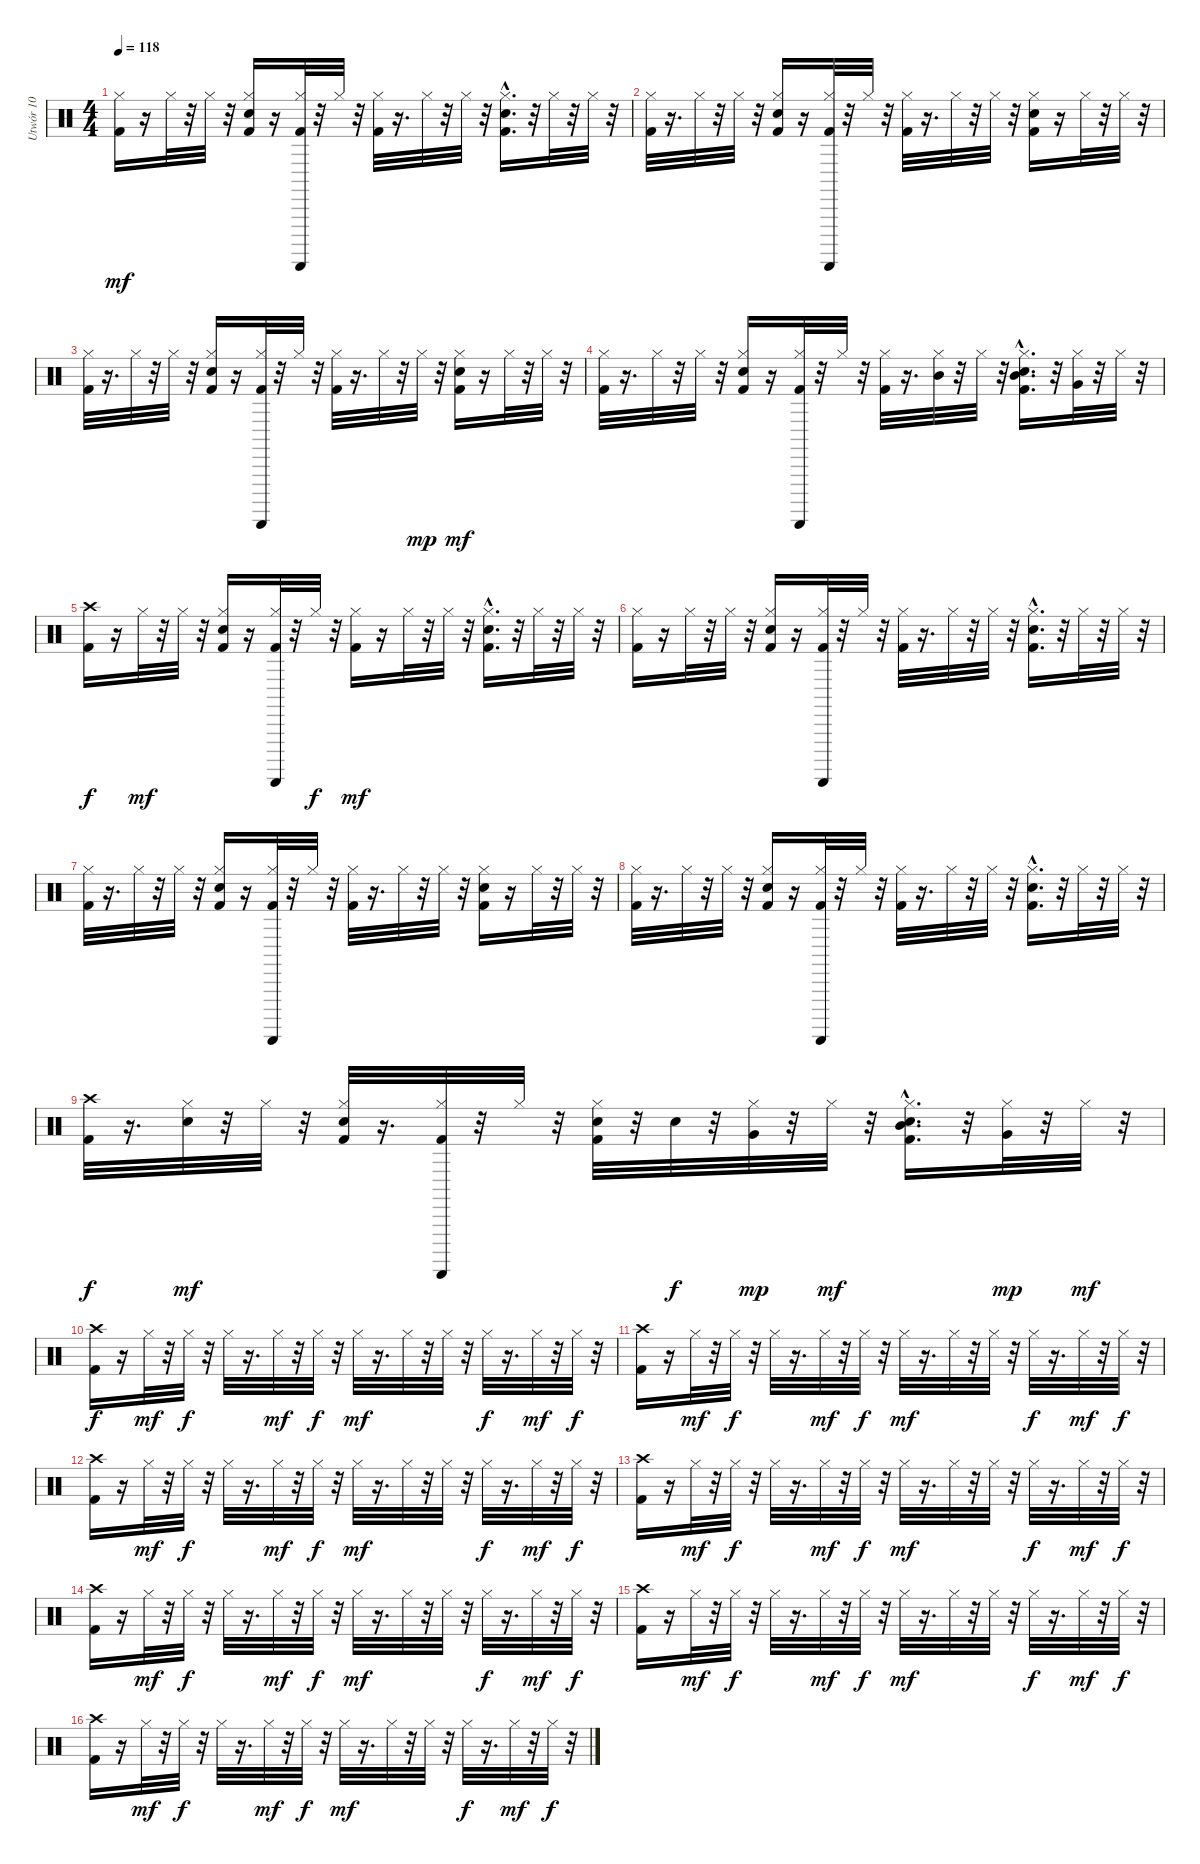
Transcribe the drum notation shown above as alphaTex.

\track ("Utwór 10" "Utwór 10") {instrument percussion}
\staff {score}
\articulation defaults
\ts (4 4)
\tempo 118
\clef neutral
\ks c
("Kick (hit) 2" "Hi-Hat (closed)").16{dy mf} r.16 "Hi-Hat (closed)".32 r.32 "Hi-Hat (closed)".32 r.32 ("Kick (hit) 2" "Snare (hit) 2" "Hi-Hat (closed)").16 r.16 ("Kick (hit) 2" "Hi-Hat (closed)" "Guiro (scrap-return)").32 r.32 "Hi-Hat (closed)".32 r.32 ("Kick (hit) 2" "Hi-Hat (closed)").32 r.16{d} "Hi-Hat (closed)".32 r.32 "Hi-Hat (closed)".32 r.32 ("Kick (hit) 2" "Snare (hit) 2"{hac} "Hi-Hat (closed)").16{d} r.32 "Hi-Hat (closed)".32 r.32 "Hi-Hat (closed)".32 r.32 |
("Kick (hit) 2" "Hi-Hat (closed)").32 r.16{d} "Hi-Hat (closed)".32 r.32 "Hi-Hat (closed)".32 r.32 ("Kick (hit) 2" "Snare (hit) 2" "Hi-Hat (closed)").16 r.16 ("Kick (hit) 2" "Hi-Hat (closed)" "Guiro (scrap-return)").32 r.32 "Hi-Hat (closed)".32 r.32 ("Kick (hit) 2" "Hi-Hat (closed)").32 r.16{d} "Hi-Hat (closed)".32 r.32 "Hi-Hat (closed)".32 r.32 ("Kick (hit) 2" "Snare (hit) 2" "Hi-Hat (closed)").16 r.16 "Hi-Hat (closed)".32 r.32 "Hi-Hat (closed)".32 r.32 |
("Kick (hit) 2" "Hi-Hat (closed)").32 r.16{d} "Hi-Hat (closed)".32 r.32 "Hi-Hat (closed)".32 r.32 ("Kick (hit) 2" "Snare (hit) 2" "Hi-Hat (closed)").16 r.16 ("Kick (hit) 2" "Hi-Hat (closed)" "Guiro (scrap-return)").32 r.32 "Hi-Hat (closed)".32 r.32 ("Kick (hit) 2" "Hi-Hat (closed)").32 r.16{d} "Hi-Hat (closed)".32 r.32 "Hi-Hat (closed)".32{dy mp} r.32 ("Kick (hit) 2" "Snare (hit) 2" "Hi-Hat (closed)").16{dy mf} r.16 "Hi-Hat (closed)".32 r.32 "Hi-Hat (closed)".32 r.32 |
("Kick (hit) 2" "Hi-Hat (closed)").32 r.16{d} "Hi-Hat (closed)".32 r.32 "Hi-Hat (closed)".32 r.32 ("Kick (hit) 2" "Snare (hit) 2" "Hi-Hat (closed)").16 r.16 ("Kick (hit) 2" "Hi-Hat (closed)" "Guiro (scrap-return)").32 r.32 "Hi-Hat (closed)".32 r.32 ("Kick (hit) 2" "Hi-Hat (closed)").32 r.16{d} ("Hi-Hat (closed)" "Mid Tom (hit)").32 r.32 "Hi-Hat (closed)".32 r.32 ("Kick (hit) 2" "Snare (hit) 2"{hac} "Hi-Hat (closed)" "Mid Tom (hit)").16{d} r.32 ("Hi-Hat (closed)" "Very Low Tom (hit)").32 r.32 "Hi-Hat (closed)".32 r.32 |
("Kick (hit) 2" "Crash high (hit)").16{dy f} r.16 "Hi-Hat (closed)".32{dy mf} r.32 "Hi-Hat (closed)".32 r.32 ("Kick (hit) 2" "Snare (hit) 2" "Hi-Hat (closed)").16 r.16 ("Kick (hit) 2" "Hi-Hat (closed)" "Guiro (scrap-return)").32 r.32 "Hi-Hat (closed)".32{dy f} r.32 ("Kick (hit) 2" "Hi-Hat (closed)").16{dy mf} r.16 "Hi-Hat (closed)".32 r.32 "Hi-Hat (closed)".32 r.32 ("Kick (hit) 2" "Snare (hit) 2"{hac} "Hi-Hat (closed)").16{d} r.32 "Hi-Hat (closed)".32 r.32 "Hi-Hat (closed)".32 r.32 |
("Kick (hit) 2" "Hi-Hat (closed)").16 r.16 "Hi-Hat (closed)".32 r.32 "Hi-Hat (closed)".32 r.32 ("Kick (hit) 2" "Snare (hit) 2" "Hi-Hat (closed)").16 r.16 ("Kick (hit) 2" "Hi-Hat (closed)" "Guiro (scrap-return)").32 r.32 "Hi-Hat (closed)".32 r.32 ("Kick (hit) 2" "Hi-Hat (closed)").32 r.16{d} "Hi-Hat (closed)".32 r.32 "Hi-Hat (closed)".32 r.32 ("Kick (hit) 2" "Snare (hit) 2"{hac} "Hi-Hat (closed)").16{d} r.32 "Hi-Hat (closed)".32 r.32 "Hi-Hat (closed)".32 r.32 |
("Kick (hit) 2" "Hi-Hat (closed)").32 r.16{d} "Hi-Hat (closed)".32 r.32 "Hi-Hat (closed)".32 r.32 ("Kick (hit) 2" "Snare (hit) 2" "Hi-Hat (closed)").16 r.16 ("Kick (hit) 2" "Hi-Hat (closed)" "Guiro (scrap-return)").32 r.32 "Hi-Hat (closed)".32 r.32 ("Kick (hit) 2" "Hi-Hat (closed)").32 r.16{d} "Hi-Hat (closed)".32 r.32 "Hi-Hat (closed)".32 r.32 ("Kick (hit) 2" "Snare (hit) 2" "Hi-Hat (closed)").16 r.16 "Hi-Hat (closed)".32 r.32 "Hi-Hat (closed)".32 r.32 |
("Kick (hit) 2" "Hi-Hat (closed)").32 r.16{d} "Hi-Hat (closed)".32 r.32 "Hi-Hat (closed)".32 r.32 ("Kick (hit) 2" "Snare (hit) 2" "Hi-Hat (closed)").16 r.16 ("Kick (hit) 2" "Hi-Hat (closed)" "Guiro (scrap-return)").32 r.32 "Hi-Hat (closed)".32 r.32 ("Kick (hit) 2" "Hi-Hat (closed)").32 r.16{d} "Hi-Hat (closed)".32 r.32 "Hi-Hat (closed)".32 r.32 ("Kick (hit) 2" "Snare (hit) 2"{hac} "Hi-Hat (closed)").16{d} r.32 "Hi-Hat (closed)".32 r.32 "Hi-Hat (closed)".32 r.32 |
("Kick (hit) 2" "Crash high (hit)").32{dy f} r.16{d} ("Snare (hit) 2" "Hi-Hat (closed)").32{dy mf} r.32 "Hi-Hat (closed)".32 r.32 ("Kick (hit) 2" "Snare (hit) 2" "Hi-Hat (closed)").32 r.16{d} ("Kick (hit) 2" "Hi-Hat (closed)" "Guiro (scrap-return)").32 r.32 "Hi-Hat (closed)".32 r.32 ("Kick (hit) 2" "Snare (hit) 2" "Hi-Hat (closed)").32 r.32 "Snare (hit) 2".32{dy f} r.32 ("Hi-Hat (closed)" "Very Low Tom (hit)").32{dy mp} r.32 "Hi-Hat (closed)".32{dy mf} r.32 ("Kick (hit) 2" "Snare (hit) 2"{hac} "Hi-Hat (closed)" "Mid Tom (hit)").16{d} r.32 ("Hi-Hat (closed)" "Very Low Tom (hit)").32{dy mp} r.32 "Hi-Hat (closed)".32{dy mf} r.32 |
("Kick (hit) 2" "Crash high (hit)").16{dy f} r.16 "Hi-Hat (closed)".32{dy mf} r.32 "Hi-Hat (closed)".32{dy f} r.32 "Hi-Hat (closed)".32 r.16{d} "Hi-Hat (closed)".32{dy mf} r.32 "Hi-Hat (closed)".32{dy f} r.32 "Hi-Hat (closed)".32{dy mf} r.16{d} "Hi-Hat (closed)".32 r.32 "Hi-Hat (closed)".32 r.32 "Hi-Hat (closed)".32{dy f} r.16{d} "Hi-Hat (closed)".32{dy mf} r.32 "Hi-Hat (closed)".32{dy f} r.32 |
("Kick (hit) 2" "Crash high (hit)").16 r.16 "Hi-Hat (closed)".32{dy mf} r.32 "Hi-Hat (closed)".32{dy f} r.32 "Hi-Hat (closed)".32 r.16{d} "Hi-Hat (closed)".32{dy mf} r.32 "Hi-Hat (closed)".32{dy f} r.32 "Hi-Hat (closed)".32{dy mf} r.16{d} "Hi-Hat (closed)".32 r.32 "Hi-Hat (closed)".32 r.32 "Hi-Hat (closed)".32{dy f} r.16{d} "Hi-Hat (closed)".32{dy mf} r.32 "Hi-Hat (closed)".32{dy f} r.32 |
("Kick (hit) 2" "Crash high (hit)").16 r.16 "Hi-Hat (closed)".32{dy mf} r.32 "Hi-Hat (closed)".32{dy f} r.32 "Hi-Hat (closed)".32 r.16{d} "Hi-Hat (closed)".32{dy mf} r.32 "Hi-Hat (closed)".32{dy f} r.32 "Hi-Hat (closed)".32{dy mf} r.16{d} "Hi-Hat (closed)".32 r.32 "Hi-Hat (closed)".32 r.32 "Hi-Hat (closed)".32{dy f} r.16{d} "Hi-Hat (closed)".32{dy mf} r.32 "Hi-Hat (closed)".32{dy f} r.32 |
("Kick (hit) 2" "Crash high (hit)").16 r.16 "Hi-Hat (closed)".32{dy mf} r.32 "Hi-Hat (closed)".32{dy f} r.32 "Hi-Hat (closed)".32 r.16{d} "Hi-Hat (closed)".32{dy mf} r.32 "Hi-Hat (closed)".32{dy f} r.32 "Hi-Hat (closed)".32{dy mf} r.16{d} "Hi-Hat (closed)".32 r.32 "Hi-Hat (closed)".32 r.32 "Hi-Hat (closed)".32{dy f} r.16{d} "Hi-Hat (closed)".32{dy mf} r.32 "Hi-Hat (closed)".32{dy f} r.32 |
("Kick (hit) 2" "Crash high (hit)").16 r.16 "Hi-Hat (closed)".32{dy mf} r.32 "Hi-Hat (closed)".32{dy f} r.32 "Hi-Hat (closed)".32 r.16{d} "Hi-Hat (closed)".32{dy mf} r.32 "Hi-Hat (closed)".32{dy f} r.32 "Hi-Hat (closed)".32{dy mf} r.16{d} "Hi-Hat (closed)".32 r.32 "Hi-Hat (closed)".32 r.32 "Hi-Hat (closed)".32{dy f} r.16{d} "Hi-Hat (closed)".32{dy mf} r.32 "Hi-Hat (closed)".32{dy f} r.32 |
("Kick (hit) 2" "Crash high (hit)").16 r.16 "Hi-Hat (closed)".32{dy mf} r.32 "Hi-Hat (closed)".32{dy f} r.32 "Hi-Hat (closed)".32 r.16{d} "Hi-Hat (closed)".32{dy mf} r.32 "Hi-Hat (closed)".32{dy f} r.32 "Hi-Hat (closed)".32{dy mf} r.16{d} "Hi-Hat (closed)".32 r.32 "Hi-Hat (closed)".32 r.32 "Hi-Hat (closed)".32{dy f} r.16{d} "Hi-Hat (closed)".32{dy mf} r.32 "Hi-Hat (closed)".32{dy f} r.32 |
("Kick (hit) 2" "Crash high (hit)").16 r.16 "Hi-Hat (closed)".32{dy mf} r.32 "Hi-Hat (closed)".32{dy f} r.32 "Hi-Hat (closed)".32 r.16{d} "Hi-Hat (closed)".32{dy mf} r.32 "Hi-Hat (closed)".32{dy f} r.32 "Hi-Hat (closed)".32{dy mf} r.16{d} "Hi-Hat (closed)".32 r.32 "Hi-Hat (closed)".32 r.32 "Hi-Hat (closed)".32{dy f} r.16{d} "Hi-Hat (closed)".32{dy mf} r.32 "Hi-Hat (closed)".32{dy f} r.32
